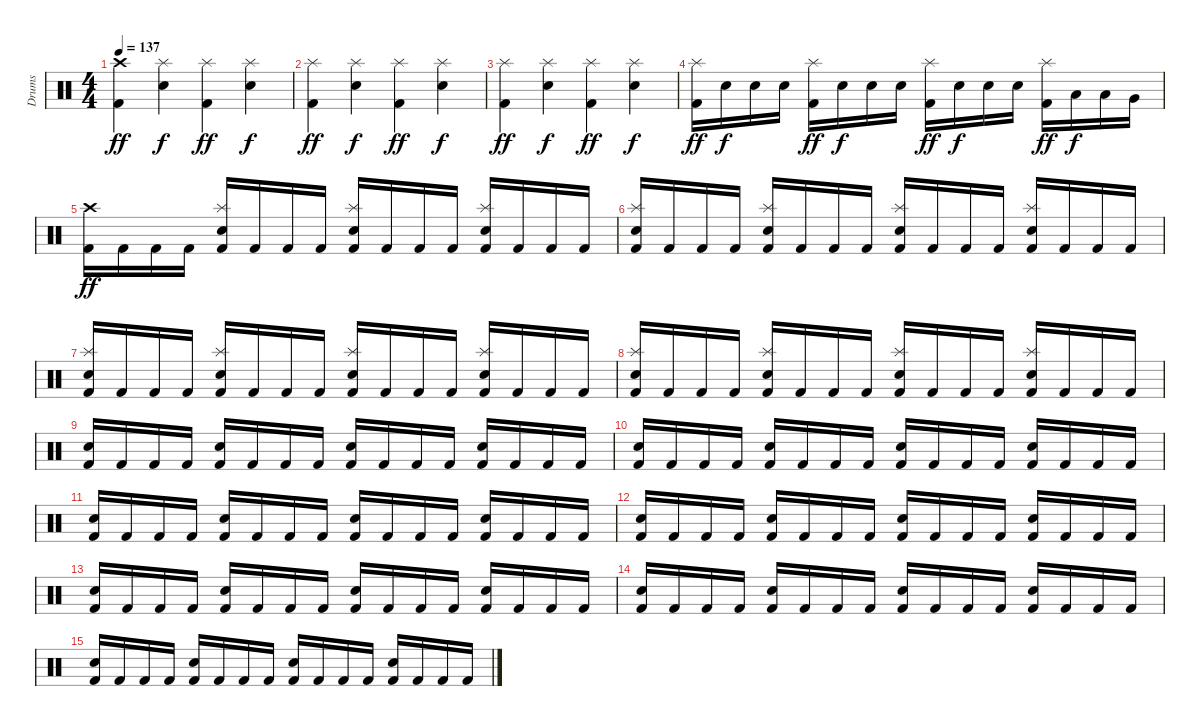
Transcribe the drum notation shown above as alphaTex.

\track ("Drums" "Drums") {instrument percussion}
\staff {score}
\articulation defaults
\ts (4 4)
\tempo 137
\clef neutral
\ks c
("Crash high (hit)" "Kick (hit) 2").4{dy ff} ("Splash (hit)" "Electric Snare (hit)").4{dy f} ("Splash (hit)" "Kick (hit) 2").4{dy ff} ("Splash (hit)" "Electric Snare (hit)").4{dy f} |
("Splash (hit)" "Kick (hit) 2").4{dy ff} ("Splash (hit)" "Electric Snare (hit)").4{dy f} ("Splash (hit)" "Kick (hit) 2").4{dy ff} ("Splash (hit)" "Electric Snare (hit)").4{dy f} |
("Splash (hit)" "Kick (hit) 2").4{dy ff} ("Splash (hit)" "Electric Snare (hit)").4{dy f} ("Splash (hit)" "Kick (hit) 2").4{dy ff} ("Splash (hit)" "Electric Snare (hit)").4{dy f} |
("Splash (hit)" "Kick (hit) 2").16{dy ff} "Electric Snare (hit)".16{dy f} "Electric Snare (hit)".16 "Electric Snare (hit)".16 ("Splash (hit)" "Kick (hit) 2").16{dy ff} "Electric Snare (hit)".16{dy f} "Electric Snare (hit)".16 "Electric Snare (hit)".16 ("Splash (hit)" "Kick (hit) 2").16{dy ff} "Electric Snare (hit)".16{dy f} "Electric Snare (hit)".16 "Electric Snare (hit)".16 ("Splash (hit)" "Kick (hit) 2").16{dy ff} "Low Tom (hit)".16{dy f} "Low Tom (hit)".16 "Very Low Tom (hit)".16 |
("Crash high (hit)" "Kick (hit) 2").16{dy ff volume 13} "Kick (hit) 2".16 "Kick (hit) 2".16 "Kick (hit) 2".16 ("Splash (hit)" "Electric Snare (hit)" "Kick (hit) 2").16 "Kick (hit) 2".16 "Kick (hit) 2".16 "Kick (hit) 2".16 ("Splash (hit)" "Electric Snare (hit)" "Kick (hit) 2").16 "Kick (hit) 2".16 "Kick (hit) 2".16 "Kick (hit) 2".16 ("Splash (hit)" "Electric Snare (hit)" "Kick (hit) 2").16 "Kick (hit) 2".16 "Kick (hit) 2".16 "Kick (hit) 2".16 |
("Splash (hit)" "Electric Snare (hit)" "Kick (hit) 2").16{volume 12} "Kick (hit) 2".16 "Kick (hit) 2".16 "Kick (hit) 2".16 ("Splash (hit)" "Electric Snare (hit)" "Kick (hit) 2").16 "Kick (hit) 2".16 "Kick (hit) 2".16 "Kick (hit) 2".16 ("Splash (hit)" "Electric Snare (hit)" "Kick (hit) 2").16 "Kick (hit) 2".16 "Kick (hit) 2".16 "Kick (hit) 2".16 ("Splash (hit)" "Electric Snare (hit)" "Kick (hit) 2").16 "Kick (hit) 2".16 "Kick (hit) 2".16 "Kick (hit) 2".16 |
("Splash (hit)" "Electric Snare (hit)" "Kick (hit) 2").16{volume 11} "Kick (hit) 2".16 "Kick (hit) 2".16 "Kick (hit) 2".16 ("Splash (hit)" "Electric Snare (hit)" "Kick (hit) 2").16 "Kick (hit) 2".16 "Kick (hit) 2".16 "Kick (hit) 2".16 ("Splash (hit)" "Electric Snare (hit)" "Kick (hit) 2").16 "Kick (hit) 2".16 "Kick (hit) 2".16 "Kick (hit) 2".16 ("Splash (hit)" "Electric Snare (hit)" "Kick (hit) 2").16 "Kick (hit) 2".16 "Kick (hit) 2".16 "Kick (hit) 2".16 |
("Splash (hit)" "Electric Snare (hit)" "Kick (hit) 2").16{volume 10} "Kick (hit) 2".16 "Kick (hit) 2".16 "Kick (hit) 2".16 ("Splash (hit)" "Electric Snare (hit)" "Kick (hit) 2").16 "Kick (hit) 2".16 "Kick (hit) 2".16 "Kick (hit) 2".16 ("Splash (hit)" "Electric Snare (hit)" "Kick (hit) 2").16 "Kick (hit) 2".16 "Kick (hit) 2".16 "Kick (hit) 2".16 ("Splash (hit)" "Electric Snare (hit)" "Kick (hit) 2").16 "Kick (hit) 2".16 "Kick (hit) 2".16 "Kick (hit) 2".16 |
("Electric Snare (hit)" "Kick (hit) 2").16{volume 7} "Kick (hit) 2".16 "Kick (hit) 2".16 "Kick (hit) 2".16 ("Electric Snare (hit)" "Kick (hit) 2").16 "Kick (hit) 2".16 "Kick (hit) 2".16 "Kick (hit) 2".16 ("Electric Snare (hit)" "Kick (hit) 2").16 "Kick (hit) 2".16 "Kick (hit) 2".16 "Kick (hit) 2".16 ("Electric Snare (hit)" "Kick (hit) 2").16 "Kick (hit) 2".16 "Kick (hit) 2".16 "Kick (hit) 2".16 |
("Electric Snare (hit)" "Kick (hit) 2").16{volume 6} "Kick (hit) 2".16 "Kick (hit) 2".16 "Kick (hit) 2".16 ("Electric Snare (hit)" "Kick (hit) 2").16 "Kick (hit) 2".16 "Kick (hit) 2".16 "Kick (hit) 2".16 ("Electric Snare (hit)" "Kick (hit) 2").16 "Kick (hit) 2".16 "Kick (hit) 2".16 "Kick (hit) 2".16 ("Electric Snare (hit)" "Kick (hit) 2").16 "Kick (hit) 2".16 "Kick (hit) 2".16 "Kick (hit) 2".16 |
("Electric Snare (hit)" "Kick (hit) 2").16{volume 5} "Kick (hit) 2".16 "Kick (hit) 2".16 "Kick (hit) 2".16 ("Electric Snare (hit)" "Kick (hit) 2").16 "Kick (hit) 2".16 "Kick (hit) 2".16 "Kick (hit) 2".16 ("Electric Snare (hit)" "Kick (hit) 2").16 "Kick (hit) 2".16 "Kick (hit) 2".16 "Kick (hit) 2".16 ("Electric Snare (hit)" "Kick (hit) 2").16 "Kick (hit) 2".16 "Kick (hit) 2".16 "Kick (hit) 2".16 |
("Electric Snare (hit)" "Kick (hit) 2").16{volume 4} "Kick (hit) 2".16 "Kick (hit) 2".16 "Kick (hit) 2".16 ("Electric Snare (hit)" "Kick (hit) 2").16 "Kick (hit) 2".16 "Kick (hit) 2".16 "Kick (hit) 2".16 ("Electric Snare (hit)" "Kick (hit) 2").16 "Kick (hit) 2".16 "Kick (hit) 2".16 "Kick (hit) 2".16 ("Electric Snare (hit)" "Kick (hit) 2").16 "Kick (hit) 2".16 "Kick (hit) 2".16 "Kick (hit) 2".16 |
("Electric Snare (hit)" "Kick (hit) 2").16{volume 3} "Kick (hit) 2".16 "Kick (hit) 2".16 "Kick (hit) 2".16 ("Electric Snare (hit)" "Kick (hit) 2").16 "Kick (hit) 2".16 "Kick (hit) 2".16 "Kick (hit) 2".16 ("Electric Snare (hit)" "Kick (hit) 2").16 "Kick (hit) 2".16 "Kick (hit) 2".16 "Kick (hit) 2".16 ("Electric Snare (hit)" "Kick (hit) 2").16 "Kick (hit) 2".16 "Kick (hit) 2".16 "Kick (hit) 2".16 |
("Electric Snare (hit)" "Kick (hit) 2").16{volume 2} "Kick (hit) 2".16 "Kick (hit) 2".16 "Kick (hit) 2".16 ("Electric Snare (hit)" "Kick (hit) 2").16 "Kick (hit) 2".16 "Kick (hit) 2".16 "Kick (hit) 2".16 ("Electric Snare (hit)" "Kick (hit) 2").16 "Kick (hit) 2".16 "Kick (hit) 2".16 "Kick (hit) 2".16 ("Electric Snare (hit)" "Kick (hit) 2").16 "Kick (hit) 2".16 "Kick (hit) 2".16 "Kick (hit) 2".16 |
("Electric Snare (hit)" "Kick (hit) 2").16{volume 1} "Kick (hit) 2".16 "Kick (hit) 2".16 "Kick (hit) 2".16 ("Electric Snare (hit)" "Kick (hit) 2").16 "Kick (hit) 2".16 "Kick (hit) 2".16 "Kick (hit) 2".16 ("Electric Snare (hit)" "Kick (hit) 2").16{volume 0} "Kick (hit) 2".16 "Kick (hit) 2".16 "Kick (hit) 2".16 ("Electric Snare (hit)" "Kick (hit) 2").16 "Kick (hit) 2".16 "Kick (hit) 2".16 "Kick (hit) 2".16
